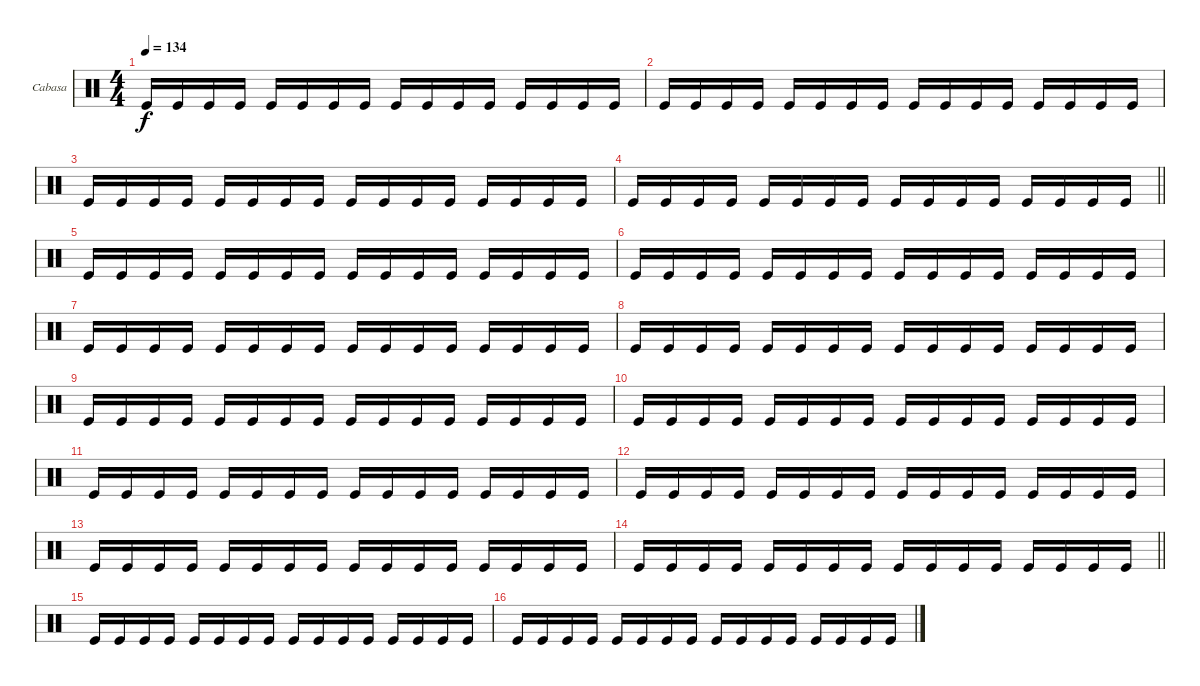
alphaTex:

\bracketExtendMode groupsimilarinstruments
\firstSystemTrackNameOrientation horizontal
\otherSystemsTrackNameOrientation horizontal
\track ("Cabasa" "Cabasa") {instrument percussion}
\staff {score}
\articulation defaults
\ts (4 4)
\tempo 134
\clef neutral
\ks c "Kick (hit)".16{dy f} "Kick (hit)".16 "Kick (hit)".16 "Kick (hit)".16 "Kick (hit)".16 "Kick (hit)".16 "Kick (hit)".16 "Kick (hit)".16 "Kick (hit)".16 "Kick (hit)".16 "Kick (hit)".16 "Kick (hit)".16 "Kick (hit)".16 "Kick (hit)".16 "Kick (hit)".16 "Kick (hit)".16
|
"Kick (hit)".16 "Kick (hit)".16 "Kick (hit)".16 "Kick (hit)".16 "Kick (hit)".16 "Kick (hit)".16 "Kick (hit)".16 "Kick (hit)".16 "Kick (hit)".16 "Kick (hit)".16 "Kick (hit)".16 "Kick (hit)".16 "Kick (hit)".16 "Kick (hit)".16 "Kick (hit)".16 "Kick (hit)".16 |
"Kick (hit)".16 "Kick (hit)".16 "Kick (hit)".16 "Kick (hit)".16 "Kick (hit)".16 "Kick (hit)".16 "Kick (hit)".16 "Kick (hit)".16 "Kick (hit)".16 "Kick (hit)".16 "Kick (hit)".16 "Kick (hit)".16 "Kick (hit)".16 "Kick (hit)".16 "Kick (hit)".16 "Kick (hit)".16 |
\barLineRight lightlight "Kick (hit)".16 "Kick (hit)".16 "Kick (hit)".16 "Kick (hit)".16 "Kick (hit)".16 "Kick (hit)".16 "Kick (hit)".16 "Kick (hit)".16 "Kick (hit)".16 "Kick (hit)".16 "Kick (hit)".16 "Kick (hit)".16 "Kick (hit)".16 "Kick (hit)".16 "Kick (hit)".16 "Kick (hit)".16
|
"Kick (hit)".16 "Kick (hit)".16 "Kick (hit)".16 "Kick (hit)".16 "Kick (hit)".16 "Kick (hit)".16 "Kick (hit)".16 "Kick (hit)".16 "Kick (hit)".16 "Kick (hit)".16 "Kick (hit)".16 "Kick (hit)".16 "Kick (hit)".16 "Kick (hit)".16 "Kick (hit)".16 "Kick (hit)".16 |
"Kick (hit)".16 "Kick (hit)".16 "Kick (hit)".16 "Kick (hit)".16 "Kick (hit)".16 "Kick (hit)".16 "Kick (hit)".16 "Kick (hit)".16 "Kick (hit)".16 "Kick (hit)".16 "Kick (hit)".16 "Kick (hit)".16 "Kick (hit)".16 "Kick (hit)".16 "Kick (hit)".16 "Kick (hit)".16 |
"Kick (hit)".16 "Kick (hit)".16 "Kick (hit)".16 "Kick (hit)".16 "Kick (hit)".16 "Kick (hit)".16 "Kick (hit)".16 "Kick (hit)".16 "Kick (hit)".16 "Kick (hit)".16 "Kick (hit)".16 "Kick (hit)".16 "Kick (hit)".16 "Kick (hit)".16 "Kick (hit)".16 "Kick (hit)".16 |
"Kick (hit)".16 "Kick (hit)".16 "Kick (hit)".16 "Kick (hit)".16 "Kick (hit)".16 "Kick (hit)".16 "Kick (hit)".16 "Kick (hit)".16 "Kick (hit)".16 "Kick (hit)".16 "Kick (hit)".16 "Kick (hit)".16 "Kick (hit)".16 "Kick (hit)".16 "Kick (hit)".16 "Kick (hit)".16 |
"Kick (hit)".16 "Kick (hit)".16 "Kick (hit)".16 "Kick (hit)".16 "Kick (hit)".16 "Kick (hit)".16 "Kick (hit)".16 "Kick (hit)".16 "Kick (hit)".16 "Kick (hit)".16 "Kick (hit)".16 "Kick (hit)".16 "Kick (hit)".16 "Kick (hit)".16 "Kick (hit)".16 "Kick (hit)".16 |
"Kick (hit)".16 "Kick (hit)".16 "Kick (hit)".16 "Kick (hit)".16 "Kick (hit)".16 "Kick (hit)".16 "Kick (hit)".16 "Kick (hit)".16 "Kick (hit)".16 "Kick (hit)".16 "Kick (hit)".16 "Kick (hit)".16 "Kick (hit)".16 "Kick (hit)".16 "Kick (hit)".16 "Kick (hit)".16 |
"Kick (hit)".16 "Kick (hit)".16 "Kick (hit)".16 "Kick (hit)".16 "Kick (hit)".16 "Kick (hit)".16 "Kick (hit)".16 "Kick (hit)".16 "Kick (hit)".16 "Kick (hit)".16 "Kick (hit)".16 "Kick (hit)".16 "Kick (hit)".16 "Kick (hit)".16 "Kick (hit)".16 "Kick (hit)".16 |
"Kick (hit)".16 "Kick (hit)".16 "Kick (hit)".16 "Kick (hit)".16 "Kick (hit)".16 "Kick (hit)".16 "Kick (hit)".16 "Kick (hit)".16 "Kick (hit)".16 "Kick (hit)".16 "Kick (hit)".16 "Kick (hit)".16 "Kick (hit)".16 "Kick (hit)".16 "Kick (hit)".16 "Kick (hit)".16 |
"Kick (hit)".16 "Kick (hit)".16 "Kick (hit)".16 "Kick (hit)".16 "Kick (hit)".16 "Kick (hit)".16 "Kick (hit)".16 "Kick (hit)".16 "Kick (hit)".16 "Kick (hit)".16 "Kick (hit)".16 "Kick (hit)".16 "Kick (hit)".16 "Kick (hit)".16 "Kick (hit)".16 "Kick (hit)".16 |
\barLineRight lightlight "Kick (hit)".16 "Kick (hit)".16 "Kick (hit)".16 "Kick (hit)".16 "Kick (hit)".16 "Kick (hit)".16 "Kick (hit)".16 "Kick (hit)".16 "Kick (hit)".16 "Kick (hit)".16 "Kick (hit)".16 "Kick (hit)".16 "Kick (hit)".16 "Kick (hit)".16 "Kick (hit)".16 "Kick (hit)".16
|
"Kick (hit)".16 "Kick (hit)".16 "Kick (hit)".16 "Kick (hit)".16 "Kick (hit)".16 "Kick (hit)".16 "Kick (hit)".16 "Kick (hit)".16 "Kick (hit)".16 "Kick (hit)".16 "Kick (hit)".16 "Kick (hit)".16 "Kick (hit)".16 "Kick (hit)".16 "Kick (hit)".16 "Kick (hit)".16 |
"Kick (hit)".16 "Kick (hit)".16 "Kick (hit)".16 "Kick (hit)".16 "Kick (hit)".16 "Kick (hit)".16 "Kick (hit)".16 "Kick (hit)".16 "Kick (hit)".16 "Kick (hit)".16 "Kick (hit)".16 "Kick (hit)".16 "Kick (hit)".16 "Kick (hit)".16 "Kick (hit)".16 "Kick (hit)".16
